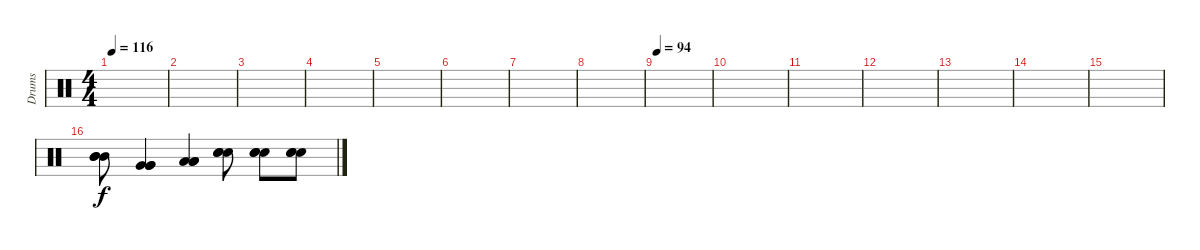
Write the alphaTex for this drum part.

\track ("Drums" "Drums") {instrument percussion}
\staff {score}
\articulation defaults
\ts (4 4)
\tempo 116
\clef neutral
\ks c
|
|
|
|
|
|
|
|
\tempo 94
|
|
|
|
|
|
|
("Mid Tom (hit)" "Mid Tom (hit)" "Mid Tom (hit)").8 ("Very Low Tom (hit)" "Very Low Tom (hit)" "Very Low Tom (hit)").4 ("Low Floor Tom (hit)" "Low Floor Tom (hit)" "Low Floor Tom (hit)").4 ("Snare (hit) 2" "Snare (hit) 2" "Snare (hit) 2").8 ("Snare (hit) 2" "Snare (hit) 2" "Snare (hit) 2").8 ("Snare (hit) 2" "Snare (hit) 2" "Snare (hit) 2").8
